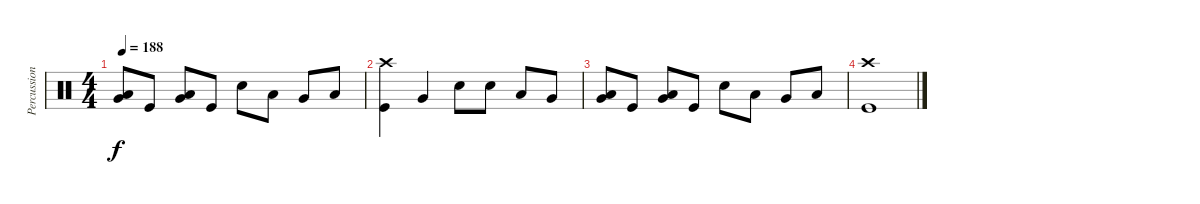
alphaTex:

\track ("Percussion" "Percussion") {instrument percussion}
\staff {score}
\articulation defaults
\ts (4 4)
\tempo 188
\clef neutral
\ks c
("Low Floor Tom (hit)" "Very Low Tom (hit)").8{dy f} "Kick (hit)".8 ("Low Floor Tom (hit)" "Very Low Tom (hit)").8 "Kick (hit)".8 "Snare (hit) 2".8 "Low Floor Tom (hit)".8 "Very Low Tom (hit)".8 "Low Floor Tom (hit)".8 |
("Kick (hit)" "Crash high (hit)").4 "Very Low Tom (hit)".4 "Snare (hit) 2".8 "Snare (hit) 2".8 "Low Tom (hit)".8 "Very Low Tom (hit)".8 |
("Low Floor Tom (hit)" "Very Low Tom (hit)").8 "Kick (hit)".8 ("Low Floor Tom (hit)" "Very Low Tom (hit)").8 "Kick (hit)".8 "Snare (hit) 2".8 "Low Floor Tom (hit)".8 "Very Low Tom (hit)".8 "Low Floor Tom (hit)".8 |
("Kick (hit)" "Crash high (hit)").1
